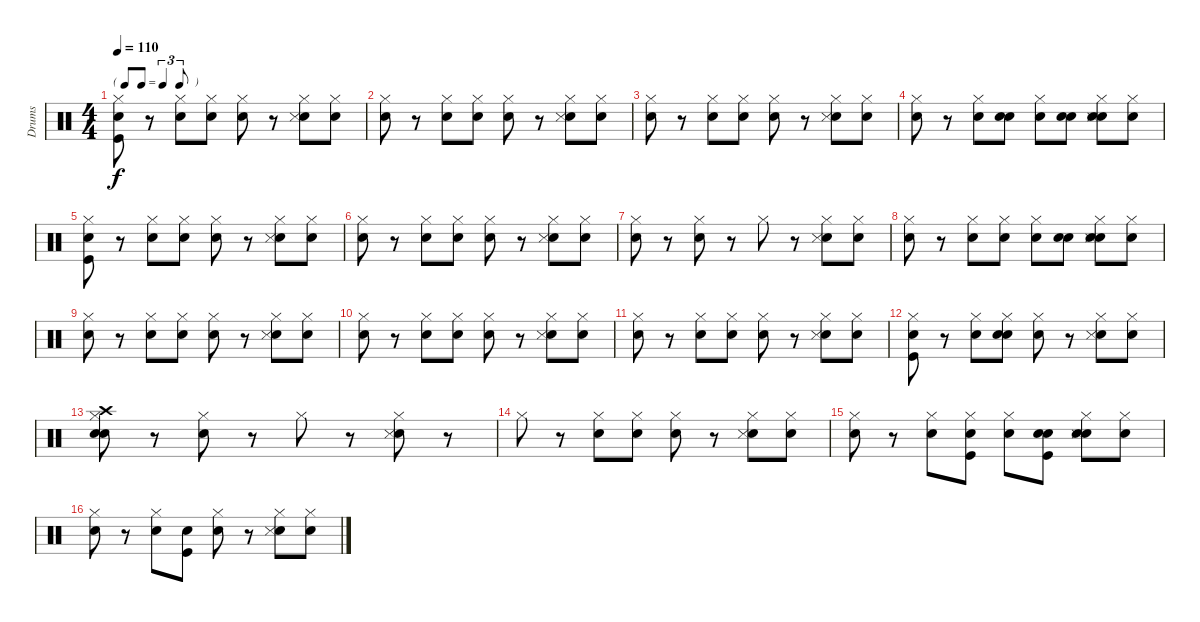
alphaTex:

\track ("Drums " "Drums ") {instrument percussion}
\staff {score}
\articulation defaults
\ts (4 4)
\tf triplet8th
\tempo 110
\clef neutral
\ks c
("Snare (hit)" "Kick (hit)" "Hi-Hat (closed)").8{dy f} r.8 ("Snare (hit) 2" "Hi-Hat (closed)").8 ("Snare (hit)" "Hi-Hat (closed)").8 ("Snare (hit)" "Hi-Hat (closed)").8 r.8 ("Snare (hit) 2" "Hi-Hat (closed)" "Snare (side stick) 3").8 ("Snare (hit)" "Hi-Hat (closed)").8 |
("Snare (hit)" "Hi-Hat (closed)").8 r.8 ("Snare (hit) 2" "Hi-Hat (closed)").8 ("Snare (hit)" "Hi-Hat (closed)").8 ("Snare (hit)" "Hi-Hat (closed)").8 r.8 ("Snare (hit) 2" "Hi-Hat (closed)" "Snare (side stick) 3").8 ("Snare (hit)" "Hi-Hat (closed)").8 |
("Snare (hit)" "Hi-Hat (closed)").8 r.8 ("Snare (hit) 2" "Hi-Hat (closed)").8 ("Snare (hit)" "Hi-Hat (closed)").8 ("Snare (hit)" "Hi-Hat (closed)").8 r.8 ("Snare (hit) 2" "Hi-Hat (closed)" "Snare (side stick) 3").8 ("Snare (hit)" "Hi-Hat (closed)").8 |
("Snare (hit)" "Hi-Hat (closed)").8 r.8 ("Snare (hit) 2" "Hi-Hat (closed)").8 ("Snare (hit)" "Snare (hit) 2").8 ("Snare (hit)" "Hi-Hat (closed)").8 ("Snare (hit)" "Snare (hit) 2").8 ("Snare (hit)" "Snare (hit) 2" "Hi-Hat (closed)" "Snare (side stick) 3").8 ("Snare (hit)" "Hi-Hat (closed)").8 |
("Snare (hit)" "Kick (hit)" "Hi-Hat (closed)").8 r.8 ("Snare (hit) 2" "Hi-Hat (closed)").8 ("Snare (hit)" "Hi-Hat (closed)").8 ("Snare (hit)" "Hi-Hat (closed)").8 r.8 ("Snare (hit) 2" "Hi-Hat (closed)" "Snare (side stick) 3").8 ("Snare (hit)" "Hi-Hat (closed)").8 |
("Snare (hit)" "Hi-Hat (closed)").8 r.8 ("Snare (hit) 2" "Hi-Hat (closed)").8 ("Snare (hit)" "Hi-Hat (closed)").8 ("Snare (hit)" "Hi-Hat (closed)").8 r.8 ("Snare (hit) 2" "Hi-Hat (closed)" "Snare (side stick) 3").8 ("Snare (hit)" "Hi-Hat (closed)").8 |
("Snare (hit)" "Hi-Hat (closed)").8 r.8 ("Snare (hit) 2" "Hi-Hat (closed)").8 r.8 "Hi-Hat (closed)".8 r.8 ("Snare (hit) 2" "Hi-Hat (closed)" "Snare (side stick) 3").8 ("Snare (hit)" "Hi-Hat (closed)").8 |
("Snare (hit)" "Hi-Hat (closed)").8 r.8 ("Snare (hit) 2" "Hi-Hat (closed)").8 ("Snare (hit)" "Hi-Hat (closed)").8 ("Snare (hit)" "Hi-Hat (closed)").8 ("Snare (hit)" "Snare (hit) 2").8 ("Snare (hit)" "Snare (hit) 2" "Hi-Hat (closed)" "Snare (side stick) 3").8 ("Snare (hit)" "Hi-Hat (closed)").8 |
("Snare (hit)" "Hi-Hat (closed)").8 r.8 ("Snare (hit) 2" "Hi-Hat (closed)").8 ("Snare (hit)" "Hi-Hat (closed)").8 ("Snare (hit)" "Hi-Hat (closed)").8 r.8 ("Snare (hit) 2" "Hi-Hat (closed)" "Snare (side stick) 3").8 ("Snare (hit)" "Hi-Hat (closed)").8 |
("Snare (hit)" "Hi-Hat (closed)").8 r.8 ("Snare (hit) 2" "Hi-Hat (closed)").8 ("Snare (hit)" "Hi-Hat (closed)").8 ("Snare (hit)" "Hi-Hat (closed)").8 r.8 ("Snare (hit) 2" "Hi-Hat (closed)" "Snare (side stick) 3").8 ("Snare (hit)" "Hi-Hat (closed)").8 |
("Snare (hit)" "Hi-Hat (closed)").8 r.8 ("Snare (hit) 2" "Hi-Hat (closed)").8 ("Snare (hit)" "Hi-Hat (closed)").8 ("Snare (hit)" "Hi-Hat (closed)").8 r.8 ("Snare (hit) 2" "Hi-Hat (closed)" "Snare (side stick) 3").8 ("Snare (hit)" "Hi-Hat (closed)").8 |
("Snare (hit)" "Kick (hit)" "Hi-Hat (closed)").8 r.8 ("Snare (hit) 2" "Hi-Hat (closed)").8 ("Snare (hit)" "Snare (hit) 2" "Hi-Hat (closed)").8 ("Snare (hit)" "Hi-Hat (closed)").8 r.8 ("Snare (hit) 2" "Hi-Hat (closed)" "Snare (side stick) 3").8 ("Snare (hit)" "Hi-Hat (closed)").8 |
("Snare (hit)" "Snare (hit) 2" "Hi-Hat (closed)" "Crash high (hit)").8{volume 10} r.8 ("Snare (hit) 2" "Hi-Hat (closed)").8 r.8 "Hi-Hat (closed)".8 r.8 ("Snare (hit) 2" "Hi-Hat (closed)" "Snare (side stick) 3").8 r.8 |
"Hi-Hat (closed)".8 r.8 ("Snare (hit) 2" "Hi-Hat (closed)").8 ("Snare (hit)" "Hi-Hat (closed)").8 ("Snare (hit)" "Hi-Hat (closed)").8 r.8 ("Snare (hit) 2" "Hi-Hat (closed)" "Snare (side stick) 3").8 ("Snare (hit)" "Hi-Hat (closed)").8 |
("Snare (hit)" "Hi-Hat (closed)").8 r.8 ("Snare (hit) 2" "Hi-Hat (closed)").8 ("Snare (hit)" "Kick (hit)" "Hi-Hat (closed)").8 ("Snare (hit)" "Hi-Hat (closed)").8 ("Snare (hit)" "Kick (hit)" "Snare (hit) 2").8 ("Snare (hit)" "Snare (hit) 2" "Hi-Hat (closed)" "Snare (side stick) 3").8 ("Snare (hit)" "Hi-Hat (closed)").8 |
("Snare (hit)" "Hi-Hat (closed)").8 r.8 ("Snare (hit) 2" "Hi-Hat (closed)").8 ("Snare (hit)" "Kick (hit)").8 ("Snare (hit)" "Hi-Hat (closed)").8 r.8 ("Snare (hit) 2" "Hi-Hat (closed)" "Snare (side stick) 3").8 ("Snare (hit)" "Hi-Hat (closed)").8
